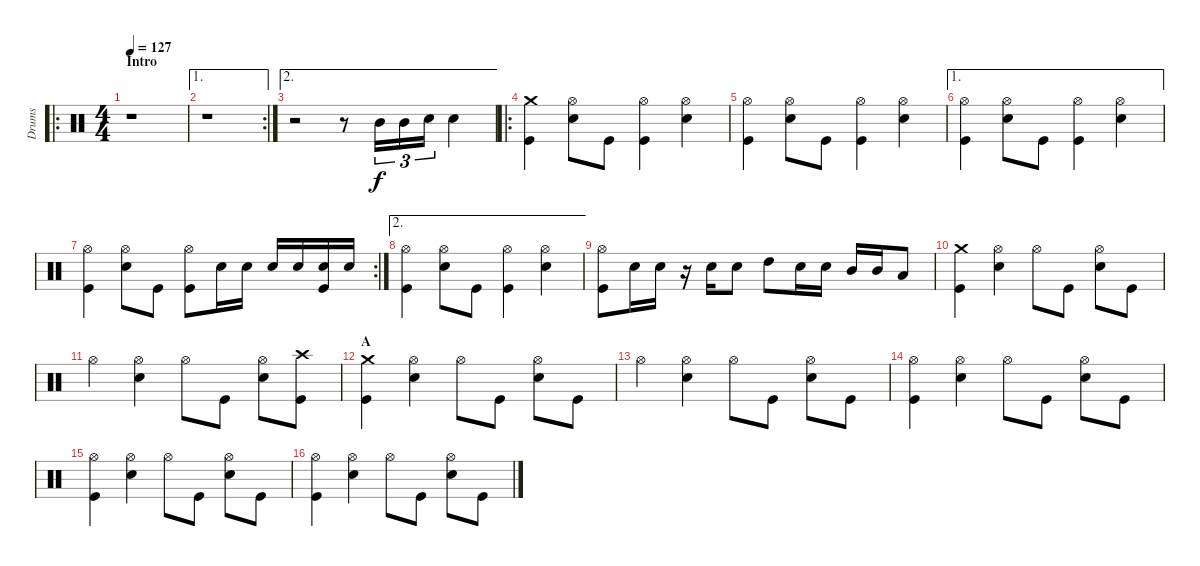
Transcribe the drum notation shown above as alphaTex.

\track ("Drums" "Drums") {instrument percussion}
\staff {score}
\articulation defaults
\ro
\ts (4 4)
\section ("" "Intro")
\tempo 127
\clef neutral
\ks c
r.1{dy f} |
\ae 1
\rc 2
r.1 |
\ae 2
r.2 r.8 "Mid Tom (hit)".16{tu (3 2)} "Mid Tom (hit)".16{tu (3 2)} "Snare (hit) 2".16{tu (3 2)} "Snare (hit) 2".4 |
\ro
("Crash medium (hit)" "Kick (hit)").4 ("Hi-Hat (open)" "Snare (hit) 2").8 "Kick (hit)".8 ("Hi-Hat (open)" "Kick (hit)").4 ("Hi-Hat (open)" "Snare (hit) 2").4 |
("Hi-Hat (open)" "Kick (hit)").4 ("Hi-Hat (open)" "Snare (hit) 2").8 "Kick (hit)".8 ("Hi-Hat (open)" "Kick (hit)").4 ("Hi-Hat (open)" "Snare (hit) 2").4 |
\ae 1
("Hi-Hat (open)" "Kick (hit)").4 ("Hi-Hat (open)" "Snare (hit) 2").8 "Kick (hit)".8 ("Hi-Hat (open)" "Kick (hit)").4 ("Hi-Hat (open)" "Snare (hit) 2").4 |
\rc 2
("Hi-Hat (open)" "Kick (hit)").4 ("Hi-Hat (open)" "Snare (hit) 2").8 "Kick (hit)".8 ("Hi-Hat (open)" "Kick (hit)").8 "Snare (hit) 2".16 "Snare (hit) 2".16 "Snare (hit) 2".16 "Snare (hit) 2".16 ("Snare (hit) 2" "Kick (hit)").16 "Snare (hit) 2".16 |
\ae 2
("Hi-Hat (open)" "Kick (hit)").4 ("Hi-Hat (open)" "Snare (hit) 2").8 "Kick (hit)".8 ("Hi-Hat (open)" "Kick (hit)").4 ("Hi-Hat (open)" "Snare (hit) 2").4 |
("Hi-Hat (open)" "Kick (hit)").8 "Snare (hit) 2".16 "Snare (hit) 2".16 r.16 "Snare (hit) 2".16 "Snare (hit) 2".8 "High Tom (hit)".8 "Snare (hit) 2".16 "Snare (hit) 2".16 "Mid Tom (hit)".16 "Mid Tom (hit)".16 "Low Tom (hit)".8 |
("Crash medium (hit)" "Kick (hit)").4 ("Hi-Hat (open)" "Snare (hit) 2").4 "Hi-Hat (open)".8 "Kick (hit)".8 ("Hi-Hat (open)" "Snare (hit) 2").8 "Kick (hit)".8 |
"Hi-Hat (open)".4 ("Hi-Hat (open)" "Snare (hit) 2").4 "Hi-Hat (open)".8 "Kick (hit)".8 ("Hi-Hat (open)" "Snare (hit) 2").8 ("Crash high (hit)" "Kick (hit)").8 |
\section ("" "A")
("Crash medium (hit)" "Kick (hit)").4 ("Hi-Hat (open)" "Snare (hit) 2").4 "Hi-Hat (open)".8 "Kick (hit)".8 ("Hi-Hat (open)" "Snare (hit) 2").8 "Kick (hit)".8 |
"Hi-Hat (open)".4 ("Hi-Hat (open)" "Snare (hit) 2").4 "Hi-Hat (open)".8 "Kick (hit)".8 ("Hi-Hat (open)" "Snare (hit) 2").8 "Kick (hit)".8 |
("Hi-Hat (open)" "Kick (hit)").4 ("Hi-Hat (open)" "Snare (hit) 2").4 "Hi-Hat (open)".8 "Kick (hit)".8 ("Hi-Hat (open)" "Snare (hit) 2").8 "Kick (hit)".8 |
("Hi-Hat (open)" "Kick (hit)").4 ("Hi-Hat (open)" "Snare (hit) 2").4 "Hi-Hat (open)".8 "Kick (hit)".8 ("Hi-Hat (open)" "Snare (hit) 2").8 "Kick (hit)".8 |
("Hi-Hat (open)" "Kick (hit)").4 ("Hi-Hat (open)" "Snare (hit) 2").4 "Hi-Hat (open)".8 "Kick (hit)".8 ("Hi-Hat (open)" "Snare (hit) 2").8 "Kick (hit)".8
